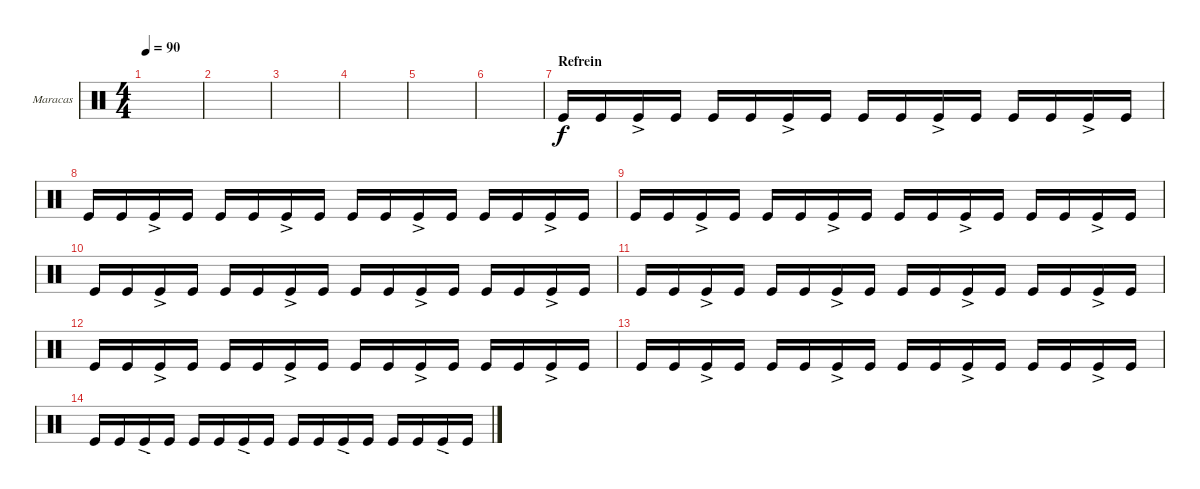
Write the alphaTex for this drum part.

\defaultSystemsLayout 4
\bracketExtendMode groupsimilarinstruments
\firstSystemTrackNameOrientation horizontal
\otherSystemsTrackNameOrientation horizontal
\track ("Maracas" "Maracas") {instrument percussion}
\staff {score}
\articulation defaults
\ts (4 4)
\tempo 90
\clef neutral
\scale
0.333333
\ks c
|
\scale
0.333333 |
\scale
0.333333 |
\scale
0.333333 |
\scale
0.333333 |
\scale
0.333333 |
\section ("" "Refrein")
\scale
0.333333 "Kick (hit)".16 "Kick (hit)".16 "Kick (hit)"{ac}.16 "Kick (hit)".16 "Kick (hit)".16 "Kick (hit)".16 "Kick (hit)"{ac}.16 "Kick (hit)".16 "Kick (hit)".16 "Kick (hit)".16 "Kick (hit)"{ac}.16 "Kick (hit)".16 "Kick (hit)".16 "Kick (hit)".16 "Kick (hit)"{ac}.16 "Kick (hit)".16 |
\scale
0.333333 "Kick (hit)".16 "Kick (hit)".16 "Kick (hit)"{ac}.16 "Kick (hit)".16 "Kick (hit)".16 "Kick (hit)".16 "Kick (hit)"{ac}.16 "Kick (hit)".16 "Kick (hit)".16 "Kick (hit)".16 "Kick (hit)"{ac}.16 "Kick (hit)".16 "Kick (hit)".16 "Kick (hit)".16 "Kick (hit)"{ac}.16 "Kick (hit)".16 |
\scale
0.333333 "Kick (hit)".16 "Kick (hit)".16 "Kick (hit)"{ac}.16 "Kick (hit)".16 "Kick (hit)".16 "Kick (hit)".16 "Kick (hit)"{ac}.16 "Kick (hit)".16 "Kick (hit)".16 "Kick (hit)".16 "Kick (hit)"{ac}.16 "Kick (hit)".16 "Kick (hit)".16 "Kick (hit)".16 "Kick (hit)"{ac}.16 "Kick (hit)".16 |
\scale
0.333333 "Kick (hit)".16 "Kick (hit)".16 "Kick (hit)"{ac}.16 "Kick (hit)".16 "Kick (hit)".16 "Kick (hit)".16 "Kick (hit)"{ac}.16 "Kick (hit)".16 "Kick (hit)".16 "Kick (hit)".16 "Kick (hit)"{ac}.16 "Kick (hit)".16 "Kick (hit)".16 "Kick (hit)".16 "Kick (hit)"{ac}.16 "Kick (hit)".16 |
\scale
0.333333 "Kick (hit)".16 "Kick (hit)".16 "Kick (hit)"{ac}.16 "Kick (hit)".16 "Kick (hit)".16 "Kick (hit)".16 "Kick (hit)"{ac}.16 "Kick (hit)".16 "Kick (hit)".16 "Kick (hit)".16 "Kick (hit)"{ac}.16 "Kick (hit)".16 "Kick (hit)".16 "Kick (hit)".16 "Kick (hit)"{ac}.16 "Kick (hit)".16 |
\scale
0.333333 "Kick (hit)".16 "Kick (hit)".16 "Kick (hit)"{ac}.16 "Kick (hit)".16 "Kick (hit)".16 "Kick (hit)".16 "Kick (hit)"{ac}.16 "Kick (hit)".16 "Kick (hit)".16 "Kick (hit)".16 "Kick (hit)"{ac}.16 "Kick (hit)".16 "Kick (hit)".16 "Kick (hit)".16 "Kick (hit)"{ac}.16 "Kick (hit)".16 |
\scale
0.333333 "Kick (hit)".16 "Kick (hit)".16 "Kick (hit)"{ac}.16 "Kick (hit)".16 "Kick (hit)".16 "Kick (hit)".16 "Kick (hit)"{ac}.16 "Kick (hit)".16 "Kick (hit)".16 "Kick (hit)".16 "Kick (hit)"{ac}.16 "Kick (hit)".16 "Kick (hit)".16 "Kick (hit)".16 "Kick (hit)"{ac}.16 "Kick (hit)".16 |
\scale
0.333333 "Kick (hit)".16 "Kick (hit)".16 "Kick (hit)"{ac}.16 "Kick (hit)".16 "Kick (hit)".16 "Kick (hit)".16 "Kick (hit)"{ac}.16 "Kick (hit)".16 "Kick (hit)".16 "Kick (hit)".16 "Kick (hit)"{ac}.16 "Kick (hit)".16 "Kick (hit)".16 "Kick (hit)".16 "Kick (hit)"{ac}.16 "Kick (hit)".16 |
\scale
0.333333
